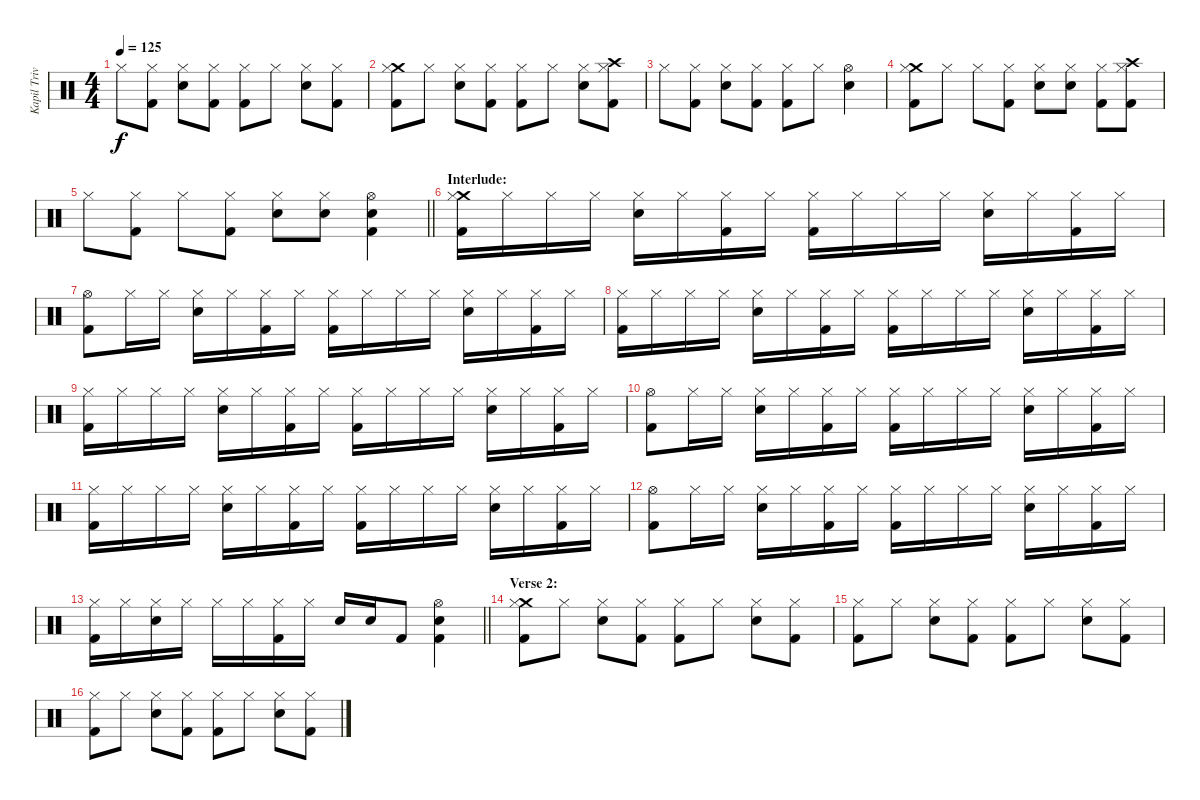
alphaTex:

\track ("Kapil Trivedi (Percussion)" "Kapil Triv") {instrument percussion}
\staff {score}
\articulation defaults
\ts (4 4)
\tempo 125
\clef neutral
\ks c "Hi-Hat (closed)".8{dy f}
("Hi-Hat (closed)" "Kick (hit) 2").8 ("Hi-Hat (closed)" "Snare (hit) 2").8 ("Hi-Hat (closed)" "Kick (hit) 2").8 ("Hi-Hat (closed)" "Kick (hit) 2").8 "Hi-Hat (closed)".8 ("Hi-Hat (closed)" "Snare (hit) 2").8 ("Hi-Hat (closed)" "Kick (hit) 2").8 |
("Crash medium (hit)" "Hi-Hat (closed)" "Kick (hit) 2").8 "Hi-Hat (closed)".8 ("Hi-Hat (closed)" "Snare (hit) 2").8 ("Hi-Hat (closed)" "Kick (hit) 2").8 ("Hi-Hat (closed)" "Kick (hit) 2").8 "Hi-Hat (closed)".8 ("Hi-Hat (closed)" "Snare (hit) 2").8 ("Crash high (hit)" "Hi-Hat (closed)" "Kick (hit) 2").8 |
"Hi-Hat (closed)".8 ("Hi-Hat (closed)" "Kick (hit) 2").8 ("Hi-Hat (closed)" "Snare (hit) 2").8 ("Hi-Hat (closed)" "Kick (hit) 2").8 ("Hi-Hat (closed)" "Kick (hit) 2").8 "Hi-Hat (closed)".8 ("Hi-Hat (open)" "Snare (hit) 2").4 |
("Crash medium (hit)" "Hi-Hat (closed)" "Kick (hit) 2").8 "Hi-Hat (closed)".8 "Hi-Hat (closed)".8 ("Hi-Hat (closed)" "Kick (hit) 2").8 ("Hi-Hat (closed)" "Snare (hit) 2").8 ("Hi-Hat (closed)" "Snare (hit) 2").8 ("Hi-Hat (closed)" "Kick (hit) 2").8 ("Crash high (hit)" "Hi-Hat (closed)" "Kick (hit) 2").8 |
\barLineRight lightlight "Hi-Hat (closed)".8
("Hi-Hat (closed)" "Kick (hit) 2").8 "Hi-Hat (closed)".8 ("Hi-Hat (closed)" "Kick (hit) 2").8 ("Hi-Hat (closed)" "Snare (hit) 2").8 ("Hi-Hat (closed)" "Snare (hit) 2").8 ("Hi-Hat (open)" "Snare (hit) 2" "Kick (hit) 2").4 |
\section ("" "Interlude:")
("Crash medium (hit)" "Hi-Hat (closed)" "Kick (hit) 2").16 "Hi-Hat (closed)".16 "Hi-Hat (closed)".16 "Hi-Hat (closed)".16 ("Hi-Hat (closed)" "Snare (hit) 2").16 "Hi-Hat (closed)".16 ("Hi-Hat (closed)" "Kick (hit) 2").16 "Hi-Hat (closed)".16 ("Hi-Hat (closed)" "Kick (hit) 2").16 "Hi-Hat (closed)".16 "Hi-Hat (closed)".16 "Hi-Hat (closed)".16 ("Hi-Hat (closed)" "Snare (hit) 2").16 "Hi-Hat (closed)".16 ("Hi-Hat (closed)" "Kick (hit) 2").16 "Hi-Hat (closed)".16 |
("Hi-Hat (open)" "Kick (hit) 2").8 "Hi-Hat (closed)".16 "Hi-Hat (closed)".16 ("Hi-Hat (closed)" "Snare (hit) 2").16 "Hi-Hat (closed)".16 ("Hi-Hat (closed)" "Kick (hit) 2").16 "Hi-Hat (closed)".16 ("Hi-Hat (closed)" "Kick (hit) 2").16 "Hi-Hat (closed)".16 "Hi-Hat (closed)".16 "Hi-Hat (closed)".16 ("Hi-Hat (closed)" "Snare (hit) 2").16 "Hi-Hat (closed)".16 ("Hi-Hat (closed)" "Kick (hit) 2").16 "Hi-Hat (closed)".16 |
("Hi-Hat (closed)" "Kick (hit) 2").16 "Hi-Hat (closed)".16 "Hi-Hat (closed)".16 "Hi-Hat (closed)".16 ("Hi-Hat (closed)" "Snare (hit) 2").16 "Hi-Hat (closed)".16 ("Hi-Hat (closed)" "Kick (hit) 2").16 "Hi-Hat (closed)".16 ("Hi-Hat (closed)" "Kick (hit) 2").16 "Hi-Hat (closed)".16 "Hi-Hat (closed)".16 "Hi-Hat (closed)".16 ("Hi-Hat (closed)" "Snare (hit) 2").16 "Hi-Hat (closed)".16 ("Hi-Hat (closed)" "Kick (hit) 2").16 "Hi-Hat (closed)".16 |
("Hi-Hat (closed)" "Kick (hit) 2").16 "Hi-Hat (closed)".16 "Hi-Hat (closed)".16 "Hi-Hat (closed)".16 ("Hi-Hat (closed)" "Snare (hit) 2").16 "Hi-Hat (closed)".16 ("Hi-Hat (closed)" "Kick (hit) 2").16 "Hi-Hat (closed)".16 ("Hi-Hat (closed)" "Kick (hit) 2").16 "Hi-Hat (closed)".16 "Hi-Hat (closed)".16 "Hi-Hat (closed)".16 ("Hi-Hat (closed)" "Snare (hit) 2").16 "Hi-Hat (closed)".16 ("Hi-Hat (closed)" "Kick (hit) 2").16 "Hi-Hat (closed)".16 |
("Hi-Hat (open)" "Kick (hit) 2").8 "Hi-Hat (closed)".16 "Hi-Hat (closed)".16 ("Hi-Hat (closed)" "Snare (hit) 2").16 "Hi-Hat (closed)".16 ("Hi-Hat (closed)" "Kick (hit) 2").16 "Hi-Hat (closed)".16 ("Hi-Hat (closed)" "Kick (hit) 2").16 "Hi-Hat (closed)".16 "Hi-Hat (closed)".16 "Hi-Hat (closed)".16 ("Hi-Hat (closed)" "Snare (hit) 2").16 "Hi-Hat (closed)".16 ("Hi-Hat (closed)" "Kick (hit) 2").16 "Hi-Hat (closed)".16 |
("Hi-Hat (closed)" "Kick (hit) 2").16 "Hi-Hat (closed)".16 "Hi-Hat (closed)".16 "Hi-Hat (closed)".16 ("Hi-Hat (closed)" "Snare (hit) 2").16 "Hi-Hat (closed)".16 ("Hi-Hat (closed)" "Kick (hit) 2").16 "Hi-Hat (closed)".16 ("Hi-Hat (closed)" "Kick (hit) 2").16 "Hi-Hat (closed)".16 "Hi-Hat (closed)".16 "Hi-Hat (closed)".16 ("Hi-Hat (closed)" "Snare (hit) 2").16 "Hi-Hat (closed)".16 ("Hi-Hat (closed)" "Kick (hit) 2").16 "Hi-Hat (closed)".16 |
("Hi-Hat (open)" "Kick (hit) 2").8 "Hi-Hat (closed)".16 "Hi-Hat (closed)".16 ("Hi-Hat (closed)" "Snare (hit) 2").16 "Hi-Hat (closed)".16 ("Hi-Hat (closed)" "Kick (hit) 2").16 "Hi-Hat (closed)".16 ("Hi-Hat (closed)" "Kick (hit) 2").16 "Hi-Hat (closed)".16 "Hi-Hat (closed)".16 "Hi-Hat (closed)".16 ("Hi-Hat (closed)" "Snare (hit) 2").16 "Hi-Hat (closed)".16 ("Hi-Hat (closed)" "Kick (hit) 2").16 "Hi-Hat (closed)".16 |
\barLineRight lightlight
("Hi-Hat (closed)" "Kick (hit) 2").16 "Hi-Hat (closed)".16 ("Hi-Hat (closed)" "Snare (hit) 2").16 "Hi-Hat (closed)".16 "Hi-Hat (closed)".16 "Hi-Hat (closed)".16 ("Hi-Hat (closed)" "Kick (hit) 2").16 "Hi-Hat (closed)".16 "Snare (hit) 2".16 "Snare (hit) 2".16 "Kick (hit) 2".8 ("Hi-Hat (open)" "Snare (hit) 2" "Kick (hit) 2").4 |
\section ("" "Verse 2:")
("Crash medium (hit)" "Hi-Hat (closed)" "Kick (hit) 2").8 "Hi-Hat (closed)".8 ("Hi-Hat (closed)" "Snare (hit) 2").8 ("Hi-Hat (closed)" "Kick (hit) 2").8 ("Hi-Hat (closed)" "Kick (hit) 2").8 "Hi-Hat (closed)".8 ("Hi-Hat (closed)" "Snare (hit) 2").8 ("Hi-Hat (closed)" "Kick (hit) 2").8 |
("Hi-Hat (closed)" "Kick (hit) 2").8 "Hi-Hat (closed)".8 ("Hi-Hat (closed)" "Snare (hit) 2").8 ("Hi-Hat (closed)" "Kick (hit) 2").8 ("Hi-Hat (closed)" "Kick (hit) 2").8 "Hi-Hat (closed)".8 ("Hi-Hat (closed)" "Snare (hit) 2").8 ("Hi-Hat (closed)" "Kick (hit) 2").8 |
("Hi-Hat (closed)" "Kick (hit) 2").8 "Hi-Hat (closed)".8 ("Hi-Hat (closed)" "Snare (hit) 2").8 ("Hi-Hat (closed)" "Kick (hit) 2").8 ("Hi-Hat (closed)" "Kick (hit) 2").8 "Hi-Hat (closed)".8 ("Hi-Hat (closed)" "Snare (hit) 2").8 ("Hi-Hat (closed)" "Kick (hit) 2").8
